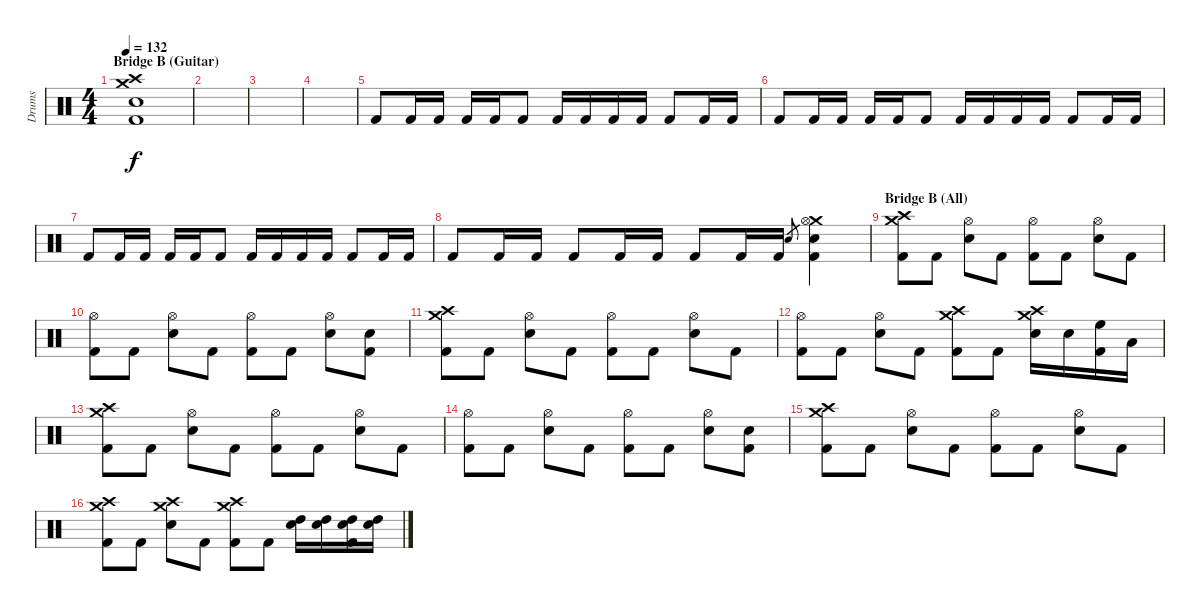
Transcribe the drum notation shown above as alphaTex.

\track ("Drums" "Drums") {instrument percussion}
\staff {score}
\articulation defaults
\ts (4 4)
\section ("" "Bridge B (Guitar)")
\tempo 132
\clef neutral
\ks c
("Crash medium (hit)" "Crash high (hit)" "Electric Snare (hit)" "Kick (hit) 2").1{dy f} |
|
|
|
"Kick (hit) 2".8 "Kick (hit) 2".16 "Kick (hit) 2".16 "Kick (hit) 2".16 "Kick (hit) 2".16 "Kick (hit) 2".8 "Kick (hit) 2".16 "Kick (hit) 2".16 "Kick (hit) 2".16 "Kick (hit) 2".16 "Kick (hit) 2".8 "Kick (hit) 2".16 "Kick (hit) 2".16 |
"Kick (hit) 2".8 "Kick (hit) 2".16 "Kick (hit) 2".16 "Kick (hit) 2".16 "Kick (hit) 2".16 "Kick (hit) 2".8 "Kick (hit) 2".16 "Kick (hit) 2".16 "Kick (hit) 2".16 "Kick (hit) 2".16 "Kick (hit) 2".8 "Kick (hit) 2".16 "Kick (hit) 2".16 |
"Kick (hit) 2".8 "Kick (hit) 2".16 "Kick (hit) 2".16 "Kick (hit) 2".16 "Kick (hit) 2".16 "Kick (hit) 2".8 "Kick (hit) 2".16 "Kick (hit) 2".16 "Kick (hit) 2".16 "Kick (hit) 2".16 "Kick (hit) 2".8 "Kick (hit) 2".16 "Kick (hit) 2".16 |
"Kick (hit) 2".8 "Kick (hit) 2".16 "Kick (hit) 2".16 "Kick (hit) 2".8 "Kick (hit) 2".16 "Kick (hit) 2".16 "Kick (hit) 2".8 "Kick (hit) 2".16 "Kick (hit) 2".16 "Electric Snare (hit)".8{gr} ("Crash medium (hit)" "Hi-Hat (open)" "Electric Snare (hit)" "Kick (hit) 2").4 |
\section ("" "Bridge B (All)")
("Crash medium (hit)" "Crash high (hit)" "Kick (hit) 2").8 "Kick (hit) 2".8 ("Hi-Hat (open)" "Electric Snare (hit)").8 "Kick (hit) 2".8 ("Hi-Hat (open)" "Kick (hit) 2").8 "Kick (hit) 2".8 ("Hi-Hat (open)" "Electric Snare (hit)").8 "Kick (hit) 2".8 |
("Hi-Hat (open)" "Kick (hit) 2").8 "Kick (hit) 2".8 ("Hi-Hat (open)" "Electric Snare (hit)").8 "Kick (hit) 2".8 ("Hi-Hat (open)" "Kick (hit) 2").8 "Kick (hit) 2".8 ("Hi-Hat (open)" "Electric Snare (hit)").8 ("Electric Snare (hit)" "Kick (hit) 2").8 |
("Crash medium (hit)" "Crash high (hit)" "Kick (hit) 2").8 "Kick (hit) 2".8 ("Hi-Hat (open)" "Electric Snare (hit)").8 "Kick (hit) 2".8 ("Hi-Hat (open)" "Kick (hit) 2").8 "Kick (hit) 2".8 ("Hi-Hat (open)" "Electric Snare (hit)").8 "Kick (hit) 2".8 |
("Hi-Hat (open)" "Kick (hit) 2").8 "Kick (hit) 2".8 ("Hi-Hat (open)" "Electric Snare (hit)").8 "Kick (hit) 2".8 ("Crash medium (hit)" "Crash high (hit)" "Kick (hit) 2").8 "Kick (hit) 2".8 ("Crash medium (hit)" "Crash high (hit)" "Electric Snare (hit)").16 "Electric Snare (hit)".16 ("High Floor Tom (hit)" "Kick (hit) 2").16 "Low Tom (hit)".16 |
("Crash medium (hit)" "Crash high (hit)" "Kick (hit) 2").8 "Kick (hit) 2".8 ("Hi-Hat (open)" "Electric Snare (hit)").8 "Kick (hit) 2".8 ("Hi-Hat (open)" "Kick (hit) 2").8 "Kick (hit) 2".8 ("Hi-Hat (open)" "Electric Snare (hit)").8 "Kick (hit) 2".8 |
("Hi-Hat (open)" "Kick (hit) 2").8 "Kick (hit) 2".8 ("Hi-Hat (open)" "Electric Snare (hit)").8 "Kick (hit) 2".8 ("Hi-Hat (open)" "Kick (hit) 2").8 "Kick (hit) 2".8 ("Hi-Hat (open)" "Electric Snare (hit)").8 ("Electric Snare (hit)" "Kick (hit) 2").8 |
("Crash medium (hit)" "Crash high (hit)" "Kick (hit) 2").8 "Kick (hit) 2".8 ("Hi-Hat (open)" "Electric Snare (hit)").8 "Kick (hit) 2".8 ("Hi-Hat (open)" "Kick (hit) 2").8 "Kick (hit) 2".8 ("Hi-Hat (open)" "Electric Snare (hit)").8 "Kick (hit) 2".8 |
("Crash high (hit)" "Crash medium (hit)" "Kick (hit) 2").8 "Kick (hit) 2".8 ("Crash high (hit)" "Crash medium (hit)" "Electric Snare (hit)").8 "Kick (hit) 2".8 ("Crash high (hit)" "Crash medium (hit)" "Kick (hit) 2").8 "Kick (hit) 2".8 ("Electric Snare (hit)" "High Tom (hit)").16 ("Electric Snare (hit)" "High Tom (hit)").16 ("Electric Snare (hit)" "High Tom (hit)" "Kick (hit) 2").16 ("Electric Snare (hit)" "High Tom (hit)").16
